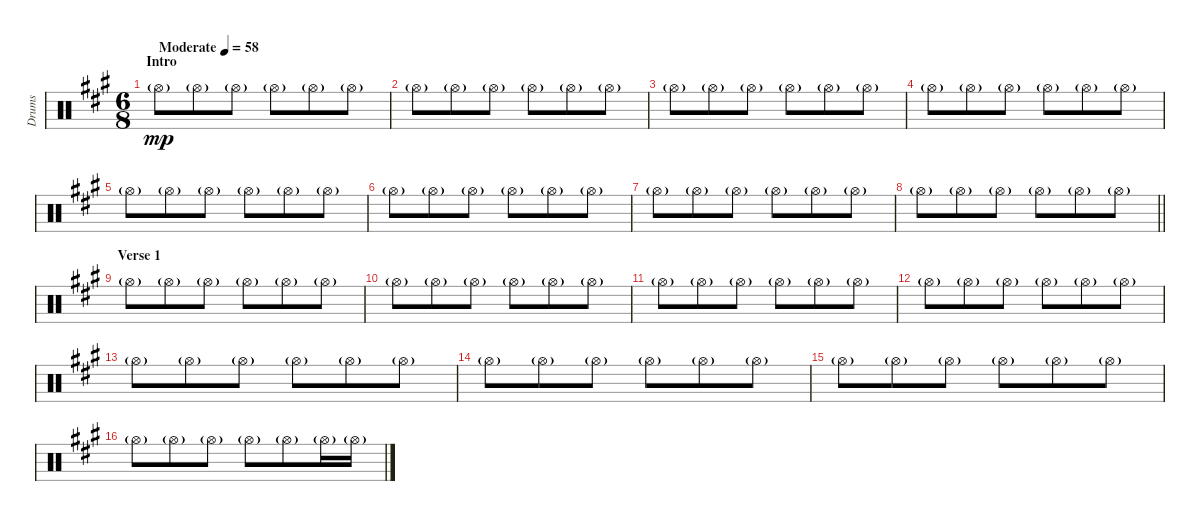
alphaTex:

\track ("Drums" "Drums") {instrument percussion}
\staff {score}
\articulation defaults
\ts (6 8)
\section ("" "Intro")
\tempo (58 "Moderate")
\clef neutral
\ks a "Hi-Hat (open)"{g}.8{dy mp} "Hi-Hat (open)"{g}.8 "Hi-Hat (open)"{g}.8 "Hi-Hat (open)"{g}.8 "Hi-Hat (open)"{g}.8 "Hi-Hat (open)"{g}.8
|
"Hi-Hat (open)"{g}.8 "Hi-Hat (open)"{g}.8 "Hi-Hat (open)"{g}.8 "Hi-Hat (open)"{g}.8 "Hi-Hat (open)"{g}.8 "Hi-Hat (open)"{g}.8 |
"Hi-Hat (open)"{g}.8 "Hi-Hat (open)"{g}.8 "Hi-Hat (open)"{g}.8 "Hi-Hat (open)"{g}.8 "Hi-Hat (open)"{g}.8 "Hi-Hat (open)"{g}.8 |
"Hi-Hat (open)"{g}.8 "Hi-Hat (open)"{g}.8 "Hi-Hat (open)"{g}.8 "Hi-Hat (open)"{g}.8 "Hi-Hat (open)"{g}.8 "Hi-Hat (open)"{g}.8 |
"Hi-Hat (open)"{g}.8 "Hi-Hat (open)"{g}.8 "Hi-Hat (open)"{g}.8 "Hi-Hat (open)"{g}.8 "Hi-Hat (open)"{g}.8 "Hi-Hat (open)"{g}.8 |
"Hi-Hat (open)"{g}.8 "Hi-Hat (open)"{g}.8 "Hi-Hat (open)"{g}.8 "Hi-Hat (open)"{g}.8 "Hi-Hat (open)"{g}.8 "Hi-Hat (open)"{g}.8 |
"Hi-Hat (open)"{g}.8 "Hi-Hat (open)"{g}.8 "Hi-Hat (open)"{g}.8 "Hi-Hat (open)"{g}.8 "Hi-Hat (open)"{g}.8 "Hi-Hat (open)"{g}.8 |
\barLineRight lightlight "Hi-Hat (open)"{g}.8 "Hi-Hat (open)"{g}.8 "Hi-Hat (open)"{g}.8 "Hi-Hat (open)"{g}.8 "Hi-Hat (open)"{g}.8 "Hi-Hat (open)"{g}.8
|
\section ("" "Verse 1")
"Hi-Hat (open)"{g}.8 "Hi-Hat (open)"{g}.8 "Hi-Hat (open)"{g}.8 "Hi-Hat (open)"{g}.8 "Hi-Hat (open)"{g}.8 "Hi-Hat (open)"{g}.8 |
"Hi-Hat (open)"{g}.8 "Hi-Hat (open)"{g}.8 "Hi-Hat (open)"{g}.8 "Hi-Hat (open)"{g}.8 "Hi-Hat (open)"{g}.8 "Hi-Hat (open)"{g}.8 |
"Hi-Hat (open)"{g}.8 "Hi-Hat (open)"{g}.8 "Hi-Hat (open)"{g}.8 "Hi-Hat (open)"{g}.8 "Hi-Hat (open)"{g}.8 "Hi-Hat (open)"{g}.8 |
"Hi-Hat (open)"{g}.8 "Hi-Hat (open)"{g}.8 "Hi-Hat (open)"{g}.8 "Hi-Hat (open)"{g}.8 "Hi-Hat (open)"{g}.8 "Hi-Hat (open)"{g}.8 |
"Hi-Hat (open)"{g}.8 "Hi-Hat (open)"{g}.8 "Hi-Hat (open)"{g}.8 "Hi-Hat (open)"{g}.8 "Hi-Hat (open)"{g}.8 "Hi-Hat (open)"{g}.8 |
"Hi-Hat (open)"{g}.8 "Hi-Hat (open)"{g}.8 "Hi-Hat (open)"{g}.8 "Hi-Hat (open)"{g}.8 "Hi-Hat (open)"{g}.8 "Hi-Hat (open)"{g}.8 |
"Hi-Hat (open)"{g}.8 "Hi-Hat (open)"{g}.8 "Hi-Hat (open)"{g}.8 "Hi-Hat (open)"{g}.8 "Hi-Hat (open)"{g}.8 "Hi-Hat (open)"{g}.8 |
"Hi-Hat (open)"{g}.8 "Hi-Hat (open)"{g}.8 "Hi-Hat (open)"{g}.8 "Hi-Hat (open)"{g}.8 "Hi-Hat (open)"{g}.8 "Hi-Hat (open)"{g}.16 "Hi-Hat (open)"{g}.16
